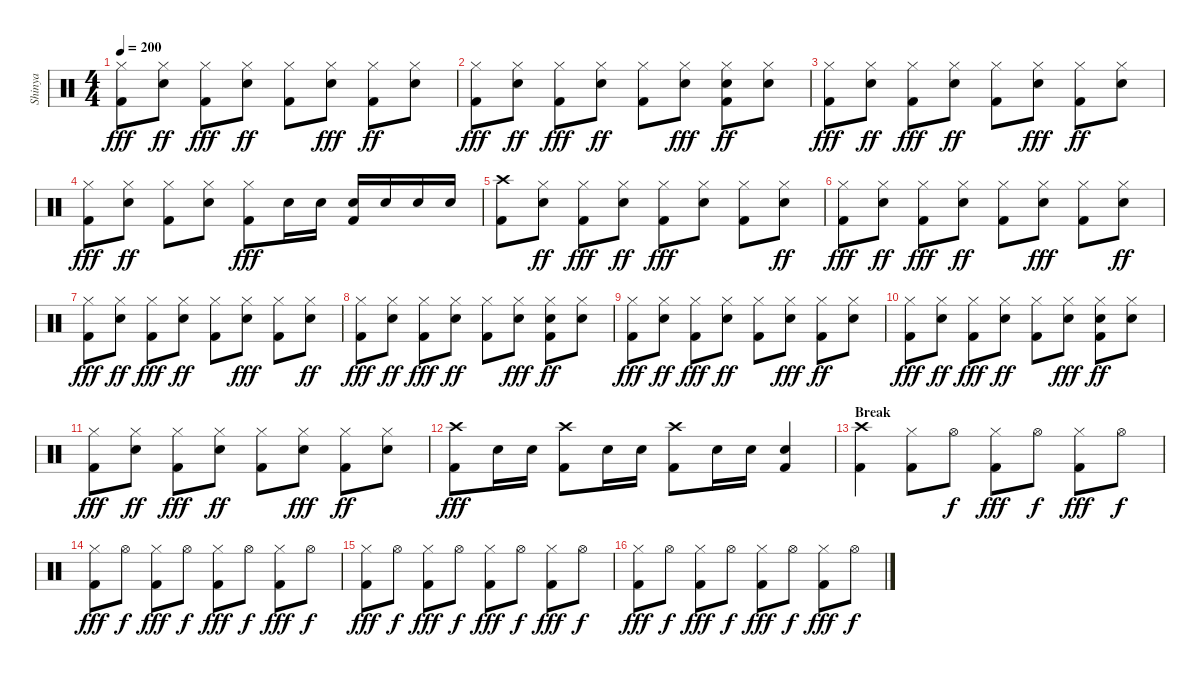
\track ("Shinya" "Shinya") {instrument percussion}
\staff {score}
\articulation defaults
\ts (4 4)
\tempo 200
\clef neutral
\ks c
("Hi-Hat (closed)" "Kick (hit) 2").8{dy fff} ("Snare (hit) 2" "Hi-Hat (closed)").8{dy ff} ("Hi-Hat (closed)" "Kick (hit) 2").8{dy fff} ("Snare (hit) 2" "Hi-Hat (closed)").8{dy ff} ("Kick (hit) 2" "Hi-Hat (closed)").8 ("Hi-Hat (closed)" "Snare (hit) 2").8{dy fff} ("Kick (hit) 2" "Hi-Hat (closed)").8{dy ff} ("Snare (hit) 2" "Hi-Hat (closed)").8 |
("Hi-Hat (closed)" "Kick (hit) 2").8{dy fff} ("Snare (hit) 2" "Hi-Hat (closed)").8{dy ff} ("Hi-Hat (closed)" "Kick (hit) 2").8{dy fff} ("Snare (hit) 2" "Hi-Hat (closed)").8{dy ff} ("Kick (hit) 2" "Hi-Hat (closed)").8 ("Hi-Hat (closed)" "Snare (hit) 2").8{dy fff} ("Kick (hit) 2" "Snare (hit) 2" "Hi-Hat (closed)").8{dy ff} ("Snare (hit) 2" "Hi-Hat (closed)").8 |
("Hi-Hat (closed)" "Kick (hit) 2").8{dy fff} ("Snare (hit) 2" "Hi-Hat (closed)").8{dy ff} ("Hi-Hat (closed)" "Kick (hit) 2").8{dy fff} ("Snare (hit) 2" "Hi-Hat (closed)").8{dy ff} ("Kick (hit) 2" "Hi-Hat (closed)").8 ("Hi-Hat (closed)" "Snare (hit) 2").8{dy fff} ("Kick (hit) 2" "Hi-Hat (closed)").8{dy ff} ("Snare (hit) 2" "Hi-Hat (closed)").8 |
("Hi-Hat (closed)" "Kick (hit) 2").8{dy fff} ("Snare (hit) 2" "Hi-Hat (closed)").8{dy ff} ("Kick (hit) 2" "Hi-Hat (closed)").8 ("Snare (hit) 2" "Hi-Hat (closed)").8 ("Hi-Hat (closed)" "Kick (hit) 2").8{dy fff} "Snare (hit) 2".16 "Snare (hit) 2".16 ("Snare (hit) 2" "Kick (hit) 2").16 "Snare (hit) 2".16 "Snare (hit) 2".16 "Snare (hit) 2".16 |
("Crash high (hit)" "Kick (hit) 2").8 ("Snare (hit) 2" "Hi-Hat (closed)").8{dy ff} ("Hi-Hat (closed)" "Kick (hit) 2").8{dy fff} ("Snare (hit) 2" "Hi-Hat (closed)").8{dy ff} ("Hi-Hat (closed)" "Kick (hit) 2").8{dy fff} ("Hi-Hat (closed)" "Snare (hit) 2").8 ("Hi-Hat (closed)" "Kick (hit) 2").8 ("Snare (hit) 2" "Hi-Hat (closed)").8{dy ff} |
("Hi-Hat (closed)" "Kick (hit) 2").8{dy fff} ("Snare (hit) 2" "Hi-Hat (closed)").8{dy ff} ("Hi-Hat (closed)" "Kick (hit) 2").8{dy fff} ("Snare (hit) 2" "Hi-Hat (closed)").8{dy ff} ("Kick (hit) 2" "Hi-Hat (closed)").8 ("Hi-Hat (closed)" "Snare (hit) 2").8{dy fff} ("Hi-Hat (closed)" "Kick (hit) 2").8 ("Snare (hit) 2" "Hi-Hat (closed)").8{dy ff} |
("Hi-Hat (closed)" "Kick (hit) 2").8{dy fff} ("Snare (hit) 2" "Hi-Hat (closed)").8{dy ff} ("Hi-Hat (closed)" "Kick (hit) 2").8{dy fff} ("Snare (hit) 2" "Hi-Hat (closed)").8{dy ff} ("Kick (hit) 2" "Hi-Hat (closed)").8 ("Hi-Hat (closed)" "Snare (hit) 2").8{dy fff} ("Hi-Hat (closed)" "Kick (hit) 2").8 ("Snare (hit) 2" "Hi-Hat (closed)").8{dy ff} |
("Hi-Hat (closed)" "Kick (hit) 2").8{dy fff} ("Snare (hit) 2" "Hi-Hat (closed)").8{dy ff} ("Hi-Hat (closed)" "Kick (hit) 2").8{dy fff} ("Snare (hit) 2" "Hi-Hat (closed)").8{dy ff} ("Kick (hit) 2" "Hi-Hat (closed)").8 ("Hi-Hat (closed)" "Snare (hit) 2").8{dy fff} ("Kick (hit) 2" "Snare (hit) 2" "Hi-Hat (closed)").8{dy ff} ("Snare (hit) 2" "Hi-Hat (closed)").8 |
("Hi-Hat (closed)" "Kick (hit) 2").8{dy fff} ("Snare (hit) 2" "Hi-Hat (closed)").8{dy ff} ("Hi-Hat (closed)" "Kick (hit) 2").8{dy fff} ("Snare (hit) 2" "Hi-Hat (closed)").8{dy ff} ("Kick (hit) 2" "Hi-Hat (closed)").8 ("Hi-Hat (closed)" "Snare (hit) 2").8{dy fff} ("Kick (hit) 2" "Hi-Hat (closed)").8{dy ff} ("Snare (hit) 2" "Hi-Hat (closed)").8 |
("Hi-Hat (closed)" "Kick (hit) 2").8{dy fff} ("Snare (hit) 2" "Hi-Hat (closed)").8{dy ff} ("Hi-Hat (closed)" "Kick (hit) 2").8{dy fff} ("Snare (hit) 2" "Hi-Hat (closed)").8{dy ff} ("Kick (hit) 2" "Hi-Hat (closed)").8 ("Hi-Hat (closed)" "Snare (hit) 2").8{dy fff} ("Kick (hit) 2" "Snare (hit) 2" "Hi-Hat (closed)").8{dy ff} ("Snare (hit) 2" "Hi-Hat (closed)").8 |
("Hi-Hat (closed)" "Kick (hit) 2").8{dy fff} ("Snare (hit) 2" "Hi-Hat (closed)").8{dy ff} ("Hi-Hat (closed)" "Kick (hit) 2").8{dy fff} ("Snare (hit) 2" "Hi-Hat (closed)").8{dy ff} ("Kick (hit) 2" "Hi-Hat (closed)").8 ("Hi-Hat (closed)" "Snare (hit) 2").8{dy fff} ("Kick (hit) 2" "Hi-Hat (closed)").8{dy ff} ("Snare (hit) 2" "Hi-Hat (closed)").8 |
("Crash high (hit)" "Kick (hit) 2").8{dy fff} "Snare (hit) 2".16 "Snare (hit) 2".16 ("Kick (hit) 2" "Crash high (hit)").8 "Snare (hit) 2".16 "Snare (hit) 2".16 ("Crash high (hit)" "Kick (hit) 2").8 "Snare (hit) 2".16 "Snare (hit) 2".16 ("Snare (hit) 2" "Kick (hit) 2").4 |
\section ("" "Break")
("Kick (hit) 2" "Crash high (hit)").4 ("Hi-Hat (closed)" "Kick (hit) 2").8 "Hi-Hat (open)".8{dy f} ("Hi-Hat (closed)" "Kick (hit) 2").8{dy fff} "Hi-Hat (open)".8{dy f} ("Hi-Hat (closed)" "Kick (hit) 2").8{dy fff} "Hi-Hat (open)".8{dy f} |
("Hi-Hat (closed)" "Kick (hit) 2").8{dy fff} "Hi-Hat (open)".8{dy f} ("Hi-Hat (closed)" "Kick (hit) 2").8{dy fff} "Hi-Hat (open)".8{dy f} ("Hi-Hat (closed)" "Kick (hit) 2").8{dy fff} "Hi-Hat (open)".8{dy f} ("Hi-Hat (closed)" "Kick (hit) 2").8{dy fff} "Hi-Hat (open)".8{dy f} |
("Hi-Hat (closed)" "Kick (hit) 2").8{dy fff} "Hi-Hat (open)".8{dy f} ("Hi-Hat (closed)" "Kick (hit) 2").8{dy fff} "Hi-Hat (open)".8{dy f} ("Hi-Hat (closed)" "Kick (hit) 2").8{dy fff} "Hi-Hat (open)".8{dy f} ("Hi-Hat (closed)" "Kick (hit) 2").8{dy fff} "Hi-Hat (open)".8{dy f} |
("Hi-Hat (closed)" "Kick (hit) 2").8{dy fff} "Hi-Hat (open)".8{dy f} ("Hi-Hat (closed)" "Kick (hit) 2").8{dy fff} "Hi-Hat (open)".8{dy f} ("Hi-Hat (closed)" "Kick (hit) 2").8{dy fff} "Hi-Hat (open)".8{dy f} ("Hi-Hat (closed)" "Kick (hit) 2").8{dy fff} "Hi-Hat (open)".8{dy f}
